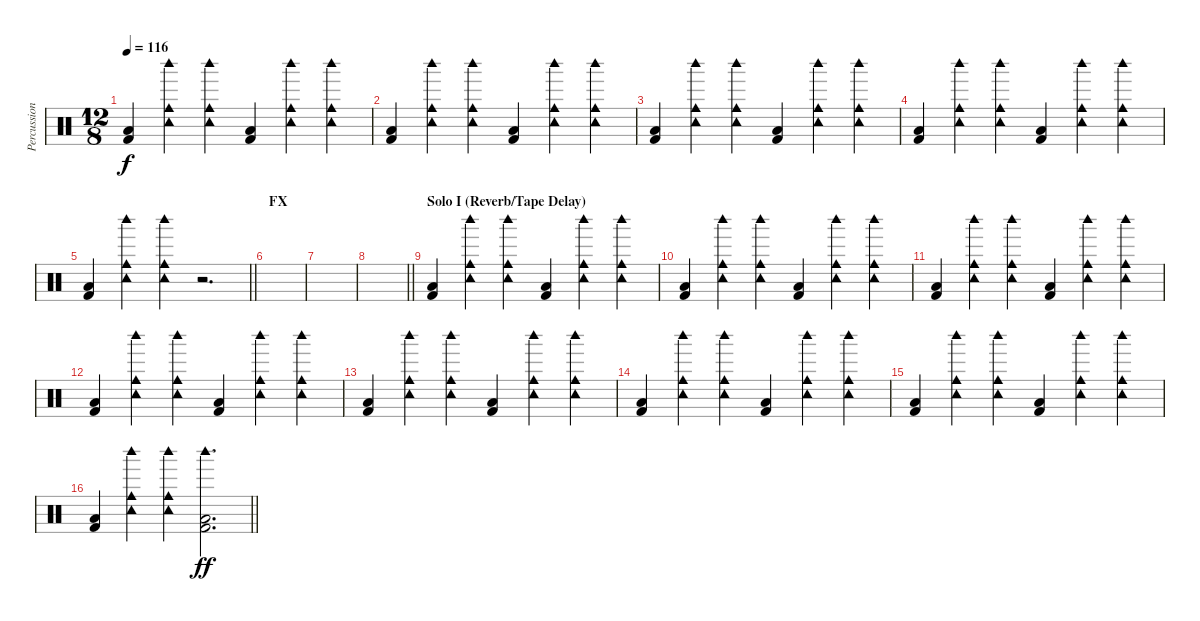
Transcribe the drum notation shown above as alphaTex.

\track ("Percussion" "Percussion") {instrument percussion}
\staff {score}
\articulation defaults
\ts (12 8)
\tempo 116
\clef neutral
\ks c
("Low Floor Tom (hit)" "Kick (hit) 2").4{dy f} ("Tambourine (hit)" "Cowbell medium (hit)" "Woodblock high (hit)").4 ("Tambourine (hit)" "Cowbell medium (hit)" "Woodblock high (hit)").4 ("Low Floor Tom (hit)" "Kick (hit) 2").4 ("Tambourine (hit)" "Cowbell medium (hit)" "Woodblock high (hit)").4 ("Tambourine (hit)" "Cowbell medium (hit)" "Woodblock high (hit)").4 |
("Low Floor Tom (hit)" "Kick (hit) 2").4 ("Tambourine (hit)" "Cowbell medium (hit)" "Woodblock high (hit)").4 ("Tambourine (hit)" "Cowbell medium (hit)" "Woodblock high (hit)").4 ("Low Floor Tom (hit)" "Kick (hit) 2").4 ("Tambourine (hit)" "Cowbell medium (hit)" "Woodblock high (hit)").4 ("Tambourine (hit)" "Cowbell medium (hit)" "Woodblock high (hit)").4 |
("Low Floor Tom (hit)" "Kick (hit) 2").4 ("Tambourine (hit)" "Cowbell medium (hit)" "Woodblock high (hit)").4 ("Tambourine (hit)" "Cowbell medium (hit)" "Woodblock high (hit)").4 ("Low Floor Tom (hit)" "Kick (hit) 2").4 ("Tambourine (hit)" "Cowbell medium (hit)" "Woodblock high (hit)").4 ("Tambourine (hit)" "Cowbell medium (hit)" "Woodblock high (hit)").4 |
("Low Floor Tom (hit)" "Kick (hit) 2").4 ("Tambourine (hit)" "Cowbell medium (hit)" "Woodblock high (hit)").4 ("Tambourine (hit)" "Cowbell medium (hit)" "Woodblock high (hit)").4 ("Low Floor Tom (hit)" "Kick (hit) 2").4 ("Tambourine (hit)" "Cowbell medium (hit)" "Woodblock high (hit)").4 ("Tambourine (hit)" "Cowbell medium (hit)" "Woodblock high (hit)").4 |
\barLineRight lightlight
("Low Floor Tom (hit)" "Kick (hit) 2").4 ("Tambourine (hit)" "Cowbell medium (hit)" "Woodblock high (hit)").4 ("Tambourine (hit)" "Cowbell medium (hit)" "Woodblock high (hit)").4 r.2{d} |
\section ("" "FX")
|
|
\barLineRight lightlight
|
\section ("" "Solo I (Reverb/Tape Delay)")
("Low Floor Tom (hit)" "Kick (hit) 2").4 ("Tambourine (hit)" "Cowbell medium (hit)" "Woodblock high (hit)").4 ("Tambourine (hit)" "Cowbell medium (hit)" "Woodblock high (hit)").4 ("Low Floor Tom (hit)" "Kick (hit) 2").4 ("Tambourine (hit)" "Cowbell medium (hit)" "Woodblock high (hit)").4 ("Tambourine (hit)" "Cowbell medium (hit)" "Woodblock high (hit)").4 |
("Low Floor Tom (hit)" "Kick (hit) 2").4 ("Tambourine (hit)" "Cowbell medium (hit)" "Woodblock high (hit)").4 ("Tambourine (hit)" "Cowbell medium (hit)" "Woodblock high (hit)").4 ("Low Floor Tom (hit)" "Kick (hit) 2").4 ("Tambourine (hit)" "Cowbell medium (hit)" "Woodblock high (hit)").4 ("Tambourine (hit)" "Cowbell medium (hit)" "Woodblock high (hit)").4 |
("Low Floor Tom (hit)" "Kick (hit) 2").4 ("Tambourine (hit)" "Cowbell medium (hit)" "Woodblock high (hit)").4 ("Tambourine (hit)" "Cowbell medium (hit)" "Woodblock high (hit)").4 ("Low Floor Tom (hit)" "Kick (hit) 2").4 ("Tambourine (hit)" "Cowbell medium (hit)" "Woodblock high (hit)").4 ("Tambourine (hit)" "Cowbell medium (hit)" "Woodblock high (hit)").4 |
("Low Floor Tom (hit)" "Kick (hit) 2").4 ("Tambourine (hit)" "Cowbell medium (hit)" "Woodblock high (hit)").4 ("Tambourine (hit)" "Cowbell medium (hit)" "Woodblock high (hit)").4 ("Low Floor Tom (hit)" "Kick (hit) 2").4 ("Tambourine (hit)" "Cowbell medium (hit)" "Woodblock high (hit)").4 ("Tambourine (hit)" "Cowbell medium (hit)" "Woodblock high (hit)").4 |
("Low Floor Tom (hit)" "Kick (hit) 2").4 ("Tambourine (hit)" "Cowbell medium (hit)" "Woodblock high (hit)").4 ("Tambourine (hit)" "Cowbell medium (hit)" "Woodblock high (hit)").4 ("Low Floor Tom (hit)" "Kick (hit) 2").4 ("Tambourine (hit)" "Cowbell medium (hit)" "Woodblock high (hit)").4 ("Tambourine (hit)" "Cowbell medium (hit)" "Woodblock high (hit)").4 |
("Low Floor Tom (hit)" "Kick (hit) 2").4 ("Tambourine (hit)" "Cowbell medium (hit)" "Woodblock high (hit)").4 ("Tambourine (hit)" "Cowbell medium (hit)" "Woodblock high (hit)").4 ("Low Floor Tom (hit)" "Kick (hit) 2").4 ("Tambourine (hit)" "Cowbell medium (hit)" "Woodblock high (hit)").4 ("Tambourine (hit)" "Cowbell medium (hit)" "Woodblock high (hit)").4 |
("Low Floor Tom (hit)" "Kick (hit) 2").4 ("Tambourine (hit)" "Cowbell medium (hit)" "Woodblock high (hit)").4 ("Tambourine (hit)" "Cowbell medium (hit)" "Woodblock high (hit)").4 ("Low Floor Tom (hit)" "Kick (hit) 2").4 ("Tambourine (hit)" "Cowbell medium (hit)" "Woodblock high (hit)").4 ("Tambourine (hit)" "Cowbell medium (hit)" "Woodblock high (hit)").4 |
\barLineRight lightlight
("Low Floor Tom (hit)" "Kick (hit) 2").4 ("Tambourine (hit)" "Cowbell medium (hit)" "Woodblock high (hit)").4 ("Tambourine (hit)" "Cowbell medium (hit)" "Woodblock high (hit)").4 ("Woodblock high (hit)" "Low Floor Tom (hit)" "Kick (hit) 2").2{d dy ff}
